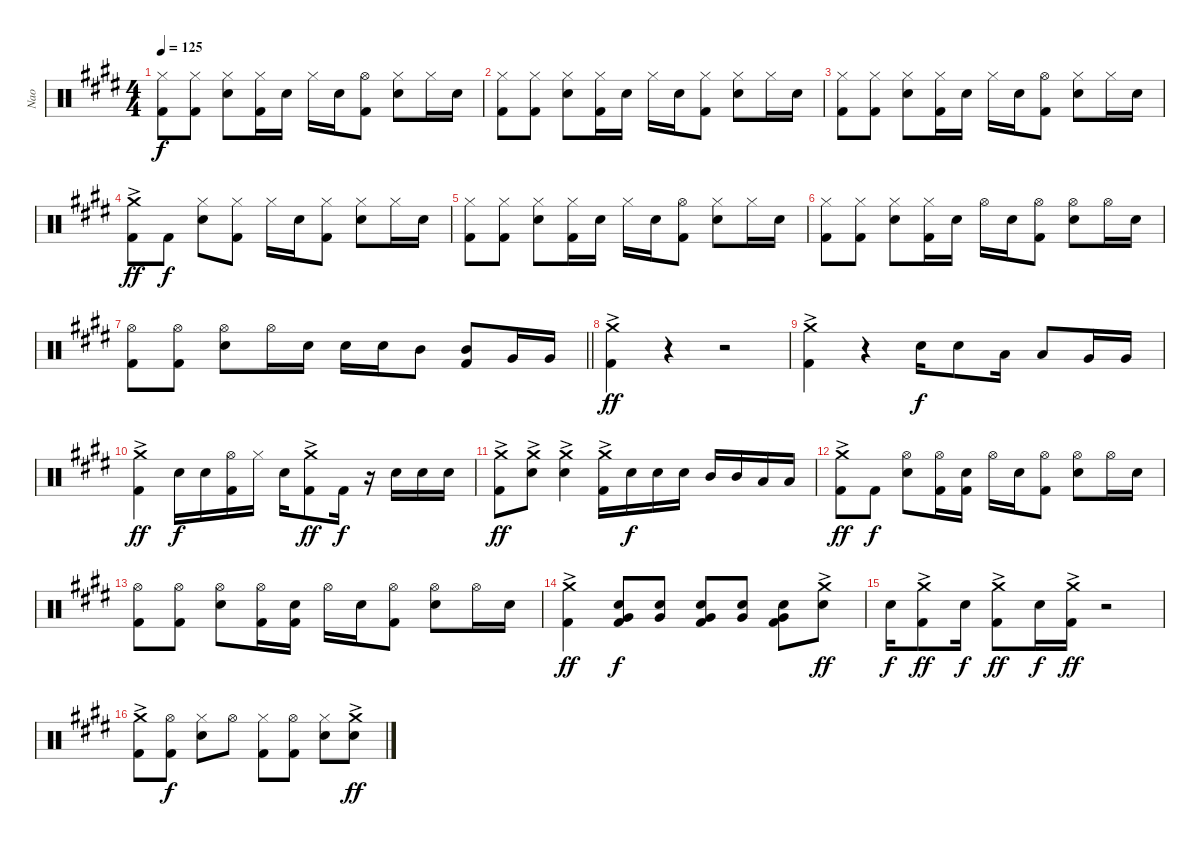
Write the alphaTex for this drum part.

\track ("Nao" "Nao") {instrument percussion}
\staff {score}
\articulation defaults
\ts (4 4)
\tempo 125
\clef neutral
\ks e
("Hi-Hat (closed)" "Kick (hit) 2").8{dy f} ("Hi-Hat (closed)" "Kick (hit) 2").8 ("Hi-Hat (closed)" "Snare (hit) 2").8 ("Hi-Hat (closed)" "Kick (hit) 2").16 "Snare (hit) 2".16 "Hi-Hat (closed)".16 "Snare (hit) 2".16 ("Hi-Hat (open)" "Kick (hit) 2").8 ("Hi-Hat (closed)" "Snare (hit) 2").8 "Hi-Hat (closed)".16 "Snare (hit) 2".16 |
("Hi-Hat (closed)" "Kick (hit) 2").8 ("Hi-Hat (closed)" "Kick (hit) 2").8 ("Hi-Hat (closed)" "Snare (hit) 2").8 ("Hi-Hat (closed)" "Kick (hit) 2").16 "Snare (hit) 2".16 "Hi-Hat (closed)".16 "Snare (hit) 2".16 ("Hi-Hat (closed)" "Kick (hit) 2").8 ("Hi-Hat (closed)" "Snare (hit) 2").8 "Hi-Hat (closed)".16 "Snare (hit) 2".16 |
("Hi-Hat (closed)" "Kick (hit) 2").8 ("Hi-Hat (closed)" "Kick (hit) 2").8 ("Hi-Hat (closed)" "Snare (hit) 2").8 ("Hi-Hat (closed)" "Kick (hit) 2").16 "Snare (hit) 2".16 "Hi-Hat (closed)".16 "Snare (hit) 2".16 ("Hi-Hat (open)" "Kick (hit) 2").8 ("Hi-Hat (closed)" "Snare (hit) 2").8 "Hi-Hat (closed)".16 "Snare (hit) 2".16 |
("Crash medium (hit)"{ac} "Kick (hit) 2").8{dy ff} "Kick (hit) 2".8{dy f} ("Hi-Hat (closed)" "Snare (hit) 2").8 ("Hi-Hat (closed)" "Kick (hit) 2").8 "Hi-Hat (closed)".16 "Snare (hit) 2".16 ("Hi-Hat (closed)" "Kick (hit) 2").8 ("Hi-Hat (closed)" "Snare (hit) 2").8 "Hi-Hat (closed)".16 "Snare (hit) 2".16 |
("Hi-Hat (closed)" "Kick (hit) 2").8 ("Hi-Hat (closed)" "Kick (hit) 2").8 ("Hi-Hat (closed)" "Snare (hit) 2").8 ("Hi-Hat (closed)" "Kick (hit) 2").16 "Snare (hit) 2".16 "Hi-Hat (closed)".16 "Snare (hit) 2".16 ("Hi-Hat (open)" "Kick (hit) 2").8 ("Hi-Hat (closed)" "Snare (hit) 2").8 "Hi-Hat (closed)".16 "Snare (hit) 2".16 |
("Hi-Hat (closed)" "Kick (hit) 2").8 ("Hi-Hat (closed)" "Kick (hit) 2").8 ("Hi-Hat (closed)" "Snare (hit) 2").8 ("Hi-Hat (closed)" "Kick (hit) 2").16 "Snare (hit) 2".16 "Hi-Hat (open)".16 "Snare (hit) 2".16 ("Hi-Hat (open)" "Kick (hit) 2").8 ("Hi-Hat (open)" "Snare (hit) 2").8 "Hi-Hat (open)".16 "Snare (hit) 2".16 |
\barLineRight lightlight
("Hi-Hat (open)" "Kick (hit) 2").8 ("Hi-Hat (open)" "Kick (hit) 2").8 ("Hi-Hat (open)" "Snare (hit) 2").8 "Hi-Hat (open)".16 "Snare (hit) 2".16 "Snare (hit) 2".16 "Snare (hit) 2".16 "Mid Tom (hit)".8 ("Mid Tom (hit)" "Kick (hit) 2").8 "Very Low Tom (hit)".16 "Very Low Tom (hit)".16 |
("Crash medium (hit)"{ac} "Kick (hit) 2").4{dy ff} r.4 r.2 |
("Crash medium (hit)"{ac} "Kick (hit) 2").4 r.4 "Snare (hit) 2".16{dy f} "Snare (hit) 2".8 "Low Tom (hit)".16 "Low Tom (hit)".8 "Very Low Tom (hit)".16 "Very Low Tom (hit)".16 |
("Crash medium (hit)"{ac} "Kick (hit) 2").4{dy ff} "Snare (hit) 2".16{dy f} "Snare (hit) 2".16 ("Hi-Hat (open)" "Kick (hit) 2").16 "Hi-Hat (closed)".16 "Snare (hit) 2".16 ("Crash medium (hit)"{ac} "Kick (hit) 2").8{dy ff} "Kick (hit) 2".16{dy f} r.16 "Snare (hit) 2".16 "Snare (hit) 2".16 "Snare (hit) 2".16 |
("Crash medium (hit)"{ac} "Kick (hit) 2").8{dy ff} ("Crash medium (hit)"{ac} "Snare (hit) 2").8 ("Crash medium (hit)"{ac} "Snare (hit) 2").4 ("Crash medium (hit)"{ac} "Kick (hit) 2").16 "Snare (hit) 2".16{dy f} "Snare (hit) 2".16 "Snare (hit) 2".16 "Mid Tom (hit)".16 "Mid Tom (hit)".16 "Low Tom (hit)".16 "Low Tom (hit)".16 |
("Crash medium (hit)"{ac} "Kick (hit) 2").8{dy ff} "Kick (hit) 2".8{dy f} ("Hi-Hat (open)" "Snare (hit) 2").8 ("Hi-Hat (open)" "Kick (hit) 2").16 ("Snare (hit) 2" "Kick (hit) 2").16 "Hi-Hat (open)".16 "Snare (hit) 2".16 ("Hi-Hat (open)" "Kick (hit) 2").8 ("Hi-Hat (open)" "Snare (hit) 2").8 "Hi-Hat (open)".16 "Snare (hit) 2".16 |
("Hi-Hat (open)" "Kick (hit) 2").8 ("Hi-Hat (open)" "Kick (hit) 2").8 ("Hi-Hat (open)" "Snare (hit) 2").8 ("Hi-Hat (open)" "Kick (hit) 2").16 ("Snare (hit) 2" "Kick (hit) 2").16 "Hi-Hat (open)".16 "Snare (hit) 2".16 ("Hi-Hat (open)" "Kick (hit) 2").8 ("Hi-Hat (open)" "Snare (hit) 2").8 "Hi-Hat (open)".16 "Snare (hit) 2".16 |
("Crash medium (hit)"{ac} "Kick (hit) 2").4{dy ff} ("Snare (hit) 2" "Very Low Tom (hit)" "Kick (hit) 2").8{dy f} ("Snare (hit) 2" "Very Low Tom (hit)").8 ("Snare (hit) 2" "Very Low Tom (hit)" "Kick (hit) 2").8 ("Snare (hit) 2" "Very Low Tom (hit)").8 ("Snare (hit) 2" "Very Low Tom (hit)" "Kick (hit) 2").8 ("Crash medium (hit)"{ac} "Snare (hit) 2").8{dy ff} |
"Snare (hit) 2".16{dy f} ("Crash medium (hit)"{ac} "Kick (hit) 2").8{dy ff} "Snare (hit) 2".16{dy f} ("Crash medium (hit)"{ac} "Kick (hit) 2").8{dy ff} "Snare (hit) 2".16{dy f} ("Crash medium (hit)"{ac} "Kick (hit) 2").16{dy ff} r.2 |
("Crash medium (hit)"{ac} "Kick (hit) 2").8 ("Hi-Hat (open)" "Kick (hit) 2").8{dy f} ("Hi-Hat (closed)" "Snare (hit) 2").8 "Hi-Hat (open)".8 ("Hi-Hat (closed)" "Kick (hit) 2").8 ("Hi-Hat (open)" "Kick (hit) 2").8 ("Hi-Hat (closed)" "Snare (hit) 2").8 ("Crash medium (hit)"{ac} "Snare (hit) 2").8{dy ff}
